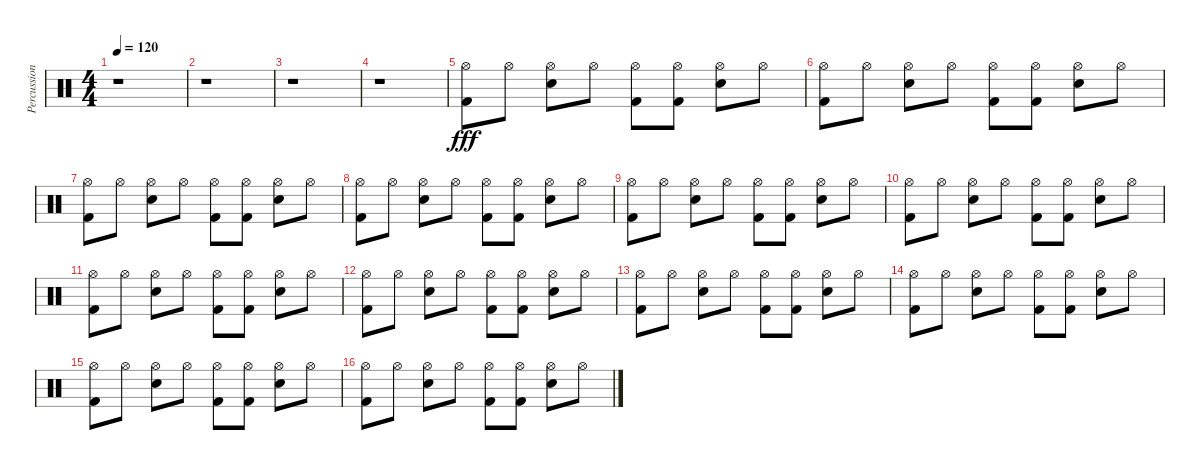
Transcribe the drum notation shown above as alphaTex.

\track ("Percussions" "Percussion") {instrument percussion}
\staff {score}
\articulation defaults
\ts (4 4)
\tempo 120
\clef neutral
\ks c
r.1{dy fff} |
r.1 |
r.1 |
r.1 |
("Hi-Hat (open)" "Kick (hit) 2").8 "Hi-Hat (open)".8 ("Hi-Hat (open)" "Electric Snare (hit)").8 "Hi-Hat (open)".8 ("Hi-Hat (open)" "Kick (hit) 2").8 ("Hi-Hat (open)" "Kick (hit) 2").8 ("Hi-Hat (open)" "Electric Snare (hit)").8 "Hi-Hat (open)".8 |
("Hi-Hat (open)" "Kick (hit) 2").8 "Hi-Hat (open)".8 ("Hi-Hat (open)" "Electric Snare (hit)").8 "Hi-Hat (open)".8 ("Hi-Hat (open)" "Kick (hit) 2").8 ("Hi-Hat (open)" "Kick (hit) 2").8 ("Hi-Hat (open)" "Electric Snare (hit)").8 "Hi-Hat (open)".8 |
("Hi-Hat (open)" "Kick (hit) 2").8 "Hi-Hat (open)".8 ("Hi-Hat (open)" "Electric Snare (hit)").8 "Hi-Hat (open)".8 ("Hi-Hat (open)" "Kick (hit) 2").8 ("Hi-Hat (open)" "Kick (hit) 2").8 ("Hi-Hat (open)" "Electric Snare (hit)").8 "Hi-Hat (open)".8 |
("Hi-Hat (open)" "Kick (hit) 2").8 "Hi-Hat (open)".8 ("Hi-Hat (open)" "Electric Snare (hit)").8 "Hi-Hat (open)".8 ("Hi-Hat (open)" "Kick (hit) 2").8 ("Hi-Hat (open)" "Kick (hit) 2").8 ("Hi-Hat (open)" "Electric Snare (hit)").8 "Hi-Hat (open)".8 |
("Hi-Hat (open)" "Kick (hit) 2").8 "Hi-Hat (open)".8 ("Hi-Hat (open)" "Electric Snare (hit)").8 "Hi-Hat (open)".8 ("Hi-Hat (open)" "Kick (hit) 2").8 ("Hi-Hat (open)" "Kick (hit) 2").8 ("Hi-Hat (open)" "Electric Snare (hit)").8 "Hi-Hat (open)".8 |
("Hi-Hat (open)" "Kick (hit) 2").8 "Hi-Hat (open)".8 ("Hi-Hat (open)" "Electric Snare (hit)").8 "Hi-Hat (open)".8 ("Hi-Hat (open)" "Kick (hit) 2").8 ("Hi-Hat (open)" "Kick (hit) 2").8 ("Hi-Hat (open)" "Electric Snare (hit)").8 "Hi-Hat (open)".8 |
("Hi-Hat (open)" "Kick (hit) 2").8 "Hi-Hat (open)".8 ("Hi-Hat (open)" "Electric Snare (hit)").8 "Hi-Hat (open)".8 ("Hi-Hat (open)" "Kick (hit) 2").8 ("Hi-Hat (open)" "Kick (hit) 2").8 ("Hi-Hat (open)" "Electric Snare (hit)").8 "Hi-Hat (open)".8 |
("Hi-Hat (open)" "Kick (hit) 2").8 "Hi-Hat (open)".8 ("Hi-Hat (open)" "Electric Snare (hit)").8 "Hi-Hat (open)".8 ("Hi-Hat (open)" "Kick (hit) 2").8 ("Hi-Hat (open)" "Kick (hit) 2").8 ("Hi-Hat (open)" "Electric Snare (hit)").8 "Hi-Hat (open)".8 |
("Hi-Hat (open)" "Kick (hit) 2").8 "Hi-Hat (open)".8 ("Hi-Hat (open)" "Electric Snare (hit)").8 "Hi-Hat (open)".8 ("Hi-Hat (open)" "Kick (hit) 2").8 ("Hi-Hat (open)" "Kick (hit) 2").8 ("Hi-Hat (open)" "Electric Snare (hit)").8 "Hi-Hat (open)".8 |
("Hi-Hat (open)" "Kick (hit) 2").8 "Hi-Hat (open)".8 ("Hi-Hat (open)" "Electric Snare (hit)").8 "Hi-Hat (open)".8 ("Hi-Hat (open)" "Kick (hit) 2").8 ("Hi-Hat (open)" "Kick (hit) 2").8 ("Hi-Hat (open)" "Electric Snare (hit)").8 "Hi-Hat (open)".8 |
("Hi-Hat (open)" "Kick (hit) 2").8 "Hi-Hat (open)".8 ("Hi-Hat (open)" "Electric Snare (hit)").8 "Hi-Hat (open)".8 ("Hi-Hat (open)" "Kick (hit) 2").8 ("Hi-Hat (open)" "Kick (hit) 2").8 ("Hi-Hat (open)" "Electric Snare (hit)").8 "Hi-Hat (open)".8 |
("Hi-Hat (open)" "Kick (hit) 2").8 "Hi-Hat (open)".8 ("Hi-Hat (open)" "Electric Snare (hit)").8 "Hi-Hat (open)".8 ("Hi-Hat (open)" "Kick (hit) 2").8 ("Hi-Hat (open)" "Kick (hit) 2").8 ("Hi-Hat (open)" "Electric Snare (hit)").8 "Hi-Hat (open)".8
